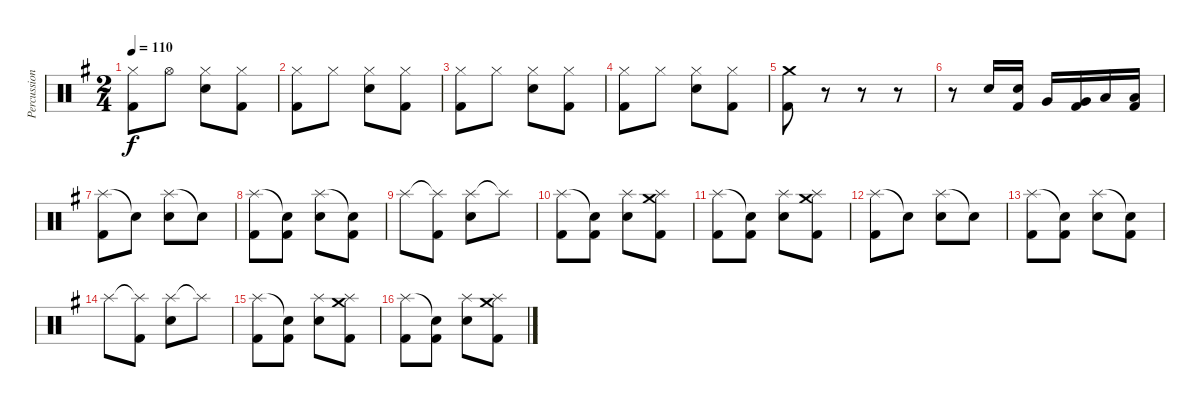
\track ("Percussion" "Percussion") {instrument percussion}
\staff {score}
\articulation defaults
\ts (2 4)
\tempo 110
\clef neutral
\ks g
("Hi-Hat (closed)" "Kick (hit) 2").8{dy f} "Hi-Hat (open)".8 ("Hi-Hat (closed)" "Electric Snare (hit)").8 ("Hi-Hat (closed)" "Kick (hit) 2").8 |
("Hi-Hat (closed)" "Kick (hit) 2").8 "Hi-Hat (closed)".8 ("Hi-Hat (closed)" "Electric Snare (hit)").8 ("Hi-Hat (closed)" "Kick (hit) 2").8 |
("Hi-Hat (closed)" "Kick (hit) 2").8 "Hi-Hat (closed)".8 ("Hi-Hat (closed)" "Electric Snare (hit)").8 ("Hi-Hat (closed)" "Kick (hit) 2").8 |
("Hi-Hat (closed)" "Kick (hit) 2").8 "Hi-Hat (closed)".8 ("Hi-Hat (closed)" "Electric Snare (hit)").8 ("Hi-Hat (closed)" "Kick (hit) 2").8 |
("Crash medium (hit)" "Kick (hit) 2").8 r.8 r.8 r.8 |
r.8 "Electric Snare (hit)".16 ("Electric Snare (hit)" "Kick (hit) 2").16 "Very Low Tom (hit)".16 ("Very Low Tom (hit)" "Kick (hit) 2").16 "Low Floor Tom (hit)".16 ("Low Floor Tom (hit)" "Kick (hit) 2").16 |
("Splash (hit)" "Kick (hit) 2").8 "Snare (hit)"{t}.8 ("Splash (hit)" "Electric Snare (hit)").8 "Snare (hit)"{t}.8 |
("Splash (hit)" "Kick (hit) 2").8 ("Snare (hit)"{t} "Kick (hit) 2").8 ("Splash (hit)" "Electric Snare (hit)").8 ("Snare (hit)"{t} "Kick (hit) 2").8 |
"Splash (hit)".8 ("Splash (hit)"{t} "Kick (hit) 2").8 ("Splash (hit)" "Electric Snare (hit)").8 "Splash (hit)"{t}.8 |
("Splash (hit)" "Kick (hit) 2").8 ("Snare (hit)"{t} "Kick (hit) 2").8 ("Splash (hit)" "Electric Snare (hit)").8 ("Crash medium (hit)" "Splash (hit)" "Kick (hit) 2").8 |
("Splash (hit)" "Kick (hit) 2").8 ("Snare (hit)"{t} "Kick (hit) 2").8 ("Splash (hit)" "Electric Snare (hit)").8 ("Crash medium (hit)" "Splash (hit)" "Kick (hit) 2").8 |
("Splash (hit)" "Kick (hit) 2").8 "Snare (hit)"{t}.8 ("Splash (hit)" "Electric Snare (hit)").8 "Snare (hit)"{t}.8 |
("Splash (hit)" "Kick (hit) 2").8 ("Snare (hit)"{t} "Kick (hit) 2").8 ("Splash (hit)" "Electric Snare (hit)").8 ("Snare (hit)"{t} "Kick (hit) 2").8 |
"Splash (hit)".8 ("Splash (hit)"{t} "Kick (hit) 2").8 ("Splash (hit)" "Electric Snare (hit)").8 "Splash (hit)"{t}.8 |
("Splash (hit)" "Kick (hit) 2").8 ("Snare (hit)"{t} "Kick (hit) 2").8 ("Splash (hit)" "Electric Snare (hit)").8 ("Crash medium (hit)" "Splash (hit)" "Kick (hit) 2").8 |
("Splash (hit)" "Kick (hit) 2").8 ("Snare (hit)"{t} "Kick (hit) 2").8 ("Splash (hit)" "Electric Snare (hit)").8 ("Crash medium (hit)" "Splash (hit)" "Kick (hit) 2").8
